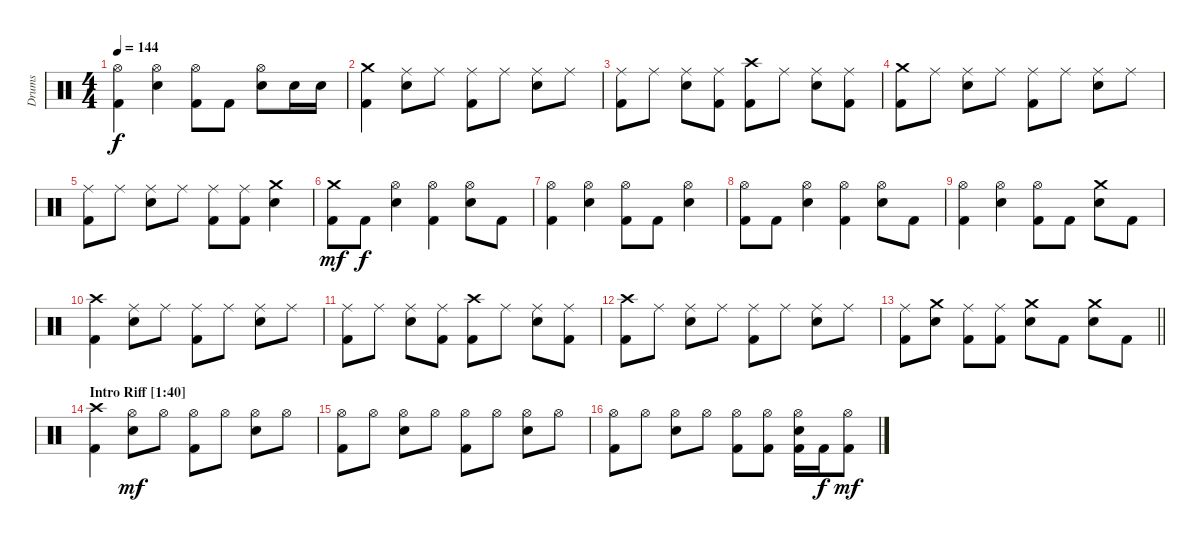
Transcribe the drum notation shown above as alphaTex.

\track ("Drums" "Drums") {instrument percussion}
\staff {score}
\articulation defaults
\ts (4 4)
\tempo 144
\clef neutral
\ks c
("Hi-Hat (open)" "Kick (hit) 2").4{dy f} ("Hi-Hat (open)" "Snare (hit) 2").4 ("Hi-Hat (open)" "Kick (hit) 2").8 "Kick (hit) 2".8 ("Hi-Hat (open)" "Snare (hit) 2").8 "Snare (hit) 2".16 "Snare (hit) 2".16 |
("Crash medium (hit)" "Kick (hit) 2").4 ("Ride (middle)" "Snare (hit) 2").8 "Ride (middle)".8 ("Ride (middle)" "Kick (hit) 2").8 "Ride (middle)".8 ("Ride (middle)" "Snare (hit) 2").8 "Ride (middle)".8 |
("Ride (middle)" "Kick (hit) 2").8 "Ride (middle)".8 ("Ride (middle)" "Snare (hit) 2").8 ("Ride (middle)" "Kick (hit) 2").8 ("Crash high (hit)" "Kick (hit) 2").8 "Ride (middle)".8 ("Ride (middle)" "Snare (hit) 2").8 ("Ride (middle)" "Kick (hit) 2").8 |
("Crash medium (hit)" "Kick (hit) 2").8 "Ride (middle)".8 ("Ride (middle)" "Snare (hit) 2").8 "Ride (middle)".8 ("Ride (middle)" "Kick (hit) 2").8 "Ride (middle)".8 ("Ride (middle)" "Snare (hit) 2").8 "Ride (middle)".8 |
("Ride (middle)" "Kick (hit) 2").8 "Ride (middle)".8 ("Ride (middle)" "Snare (hit) 2").8 "Ride (middle)".8 ("Ride (middle)" "Kick (hit) 2").8 ("Ride (middle)" "Kick (hit) 2").8 ("Crash medium (hit)" "Snare (hit) 2").4 |
("Crash medium (hit)" "Kick (hit) 2").8{dy mf} "Kick (hit) 2".8{dy f} ("Hi-Hat (open)" "Snare (hit) 2").4 ("Hi-Hat (open)" "Kick (hit) 2").4 ("Hi-Hat (open)" "Snare (hit) 2").8 "Kick (hit) 2".8 |
("Hi-Hat (open)" "Kick (hit) 2").4 ("Hi-Hat (open)" "Snare (hit) 2").4 ("Hi-Hat (open)" "Kick (hit) 2").8 "Kick (hit) 2".8 ("Hi-Hat (open)" "Snare (hit) 2").4 |
("Hi-Hat (open)" "Kick (hit) 2").8 "Kick (hit) 2".8 ("Hi-Hat (open)" "Snare (hit) 2").4 ("Hi-Hat (open)" "Kick (hit) 2").4 ("Hi-Hat (open)" "Snare (hit) 2").8 "Kick (hit) 2".8 |
("Hi-Hat (open)" "Kick (hit) 2").4 ("Hi-Hat (open)" "Snare (hit) 2").4 ("Hi-Hat (open)" "Kick (hit) 2").8 "Kick (hit) 2".8 ("Crash medium (hit)" "Snare (hit) 2").8 "Kick (hit) 2".8 |
("Crash high (hit)" "Kick (hit) 2").4 ("Ride (middle)" "Snare (hit) 2").8 "Ride (middle)".8 ("Ride (middle)" "Kick (hit) 2").8 "Ride (middle)".8 ("Ride (middle)" "Snare (hit) 2").8 "Ride (middle)".8 |
("Ride (middle)" "Kick (hit) 2").8 "Ride (middle)".8 ("Ride (middle)" "Snare (hit) 2").8 ("Ride (middle)" "Kick (hit) 2").8 ("Crash high (hit)" "Kick (hit) 2").8 "Ride (middle)".8 ("Ride (middle)" "Snare (hit) 2").8 ("Ride (middle)" "Kick (hit) 2").8 |
("Crash high (hit)" "Kick (hit) 2").8 "Ride (middle)".8 ("Ride (middle)" "Snare (hit) 2").8 "Ride (middle)".8 ("Ride (middle)" "Kick (hit) 2").8 "Ride (middle)".8 ("Ride (middle)" "Snare (hit) 2").8 "Ride (middle)".8 |
\barLineRight lightlight
("Ride (middle)" "Kick (hit) 2").8 ("Crash medium (hit)" "Snare (hit) 2").8 ("Ride (middle)" "Kick (hit) 2").8 ("Ride (middle)" "Kick (hit) 2").8 ("Crash medium (hit)" "Snare (hit) 2").8 "Kick (hit) 2".8 ("Crash medium (hit)" "Snare (hit) 2").8 "Kick (hit) 2".8 |
\section ("" "Intro Riff [1:40]")
("Crash high (hit)" "Kick (hit) 2").4 ("Hi-Hat (open)" "Snare (hit) 2").8{dy mf} "Hi-Hat (open)".8 ("Hi-Hat (open)" "Kick (hit) 2").8 "Hi-Hat (open)".8 ("Hi-Hat (open)" "Snare (hit) 2").8 "Hi-Hat (open)".8 |
("Hi-Hat (open)" "Kick (hit) 2").8 "Hi-Hat (open)".8 ("Hi-Hat (open)" "Snare (hit) 2").8 "Hi-Hat (open)".8 ("Hi-Hat (open)" "Kick (hit) 2").8 "Hi-Hat (open)".8 ("Hi-Hat (open)" "Snare (hit) 2").8 "Hi-Hat (open)".8 |
("Hi-Hat (open)" "Kick (hit) 2").8 "Hi-Hat (open)".8 ("Hi-Hat (open)" "Snare (hit) 2").8 "Hi-Hat (open)".8 ("Hi-Hat (open)" "Kick (hit) 2").8 ("Hi-Hat (open)" "Kick (hit) 2").8 ("Hi-Hat (open)" "Snare (hit) 2" "Kick (hit) 2").16 "Kick (hit) 2".16{dy f} ("Hi-Hat (open)" "Kick (hit) 2").8{dy mf}
